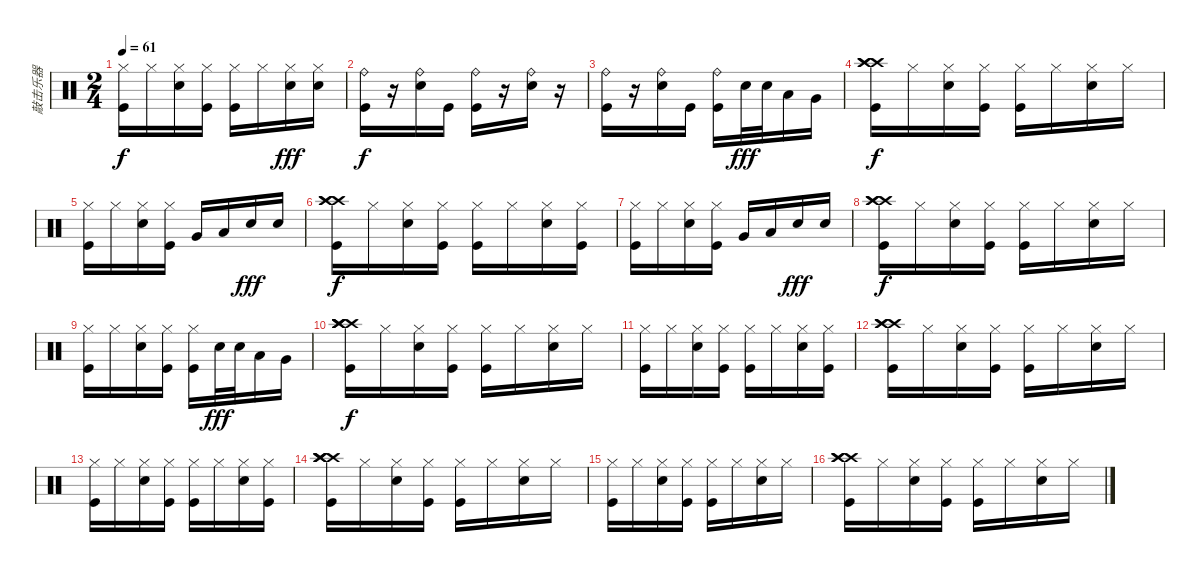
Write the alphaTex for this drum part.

\track ("敲击乐器" "敲击乐器") {instrument percussion}
\staff {score}
\articulation defaults
\ts (2 4)
\tempo 61
\clef neutral
\ks c
("Hi-Hat (closed)" "Kick (hit)").16{dy f} "Hi-Hat (closed)".16 ("Hi-Hat (closed)" "Snare (hit) 2").16 ("Hi-Hat (closed)" "Kick (hit)").16 ("Hi-Hat (closed)" "Kick (hit)").16 "Hi-Hat (closed)".16 ("Hi-Hat (closed)" "Snare (hit) 2").16{dy fff} ("Hi-Hat (closed)" "Snare (hit) 2").16 |
("Ride (bell)" "Kick (hit)").16{dy f} r.16 ("Ride (bell)" "Snare (hit) 2").16 "Kick (hit)".16 ("Ride (bell)" "Kick (hit)").16 r.16 ("Ride (bell)" "Snare (hit) 2").16 r.16 |
("Ride (bell)" "Kick (hit)").16 r.16 ("Ride (bell)" "Snare (hit) 2").16 "Kick (hit)".16 ("Ride (bell)" "Kick (hit)").16 "Snare (hit) 2".32{dy fff} "Snare (hit) 2".32 "Low Tom (hit)".16 "Very Low Tom (hit)".16 |
("Crash high (hit)" "Crash high (hit)" "Crash high (hit)" "Kick (hit)").16{dy f} "Hi-Hat (closed)".16 ("Hi-Hat (closed)" "Snare (hit) 2").16 ("Hi-Hat (closed)" "Kick (hit)").16 ("Hi-Hat (closed)" "Kick (hit)").16 "Hi-Hat (closed)".16 ("Hi-Hat (closed)" "Snare (hit) 2").16 "Hi-Hat (closed)".16 |
("Hi-Hat (closed)" "Kick (hit)").16 "Hi-Hat (closed)".16 ("Hi-Hat (closed)" "Snare (hit) 2").16 ("Hi-Hat (closed)" "Kick (hit)").16 "Very Low Tom (hit)".16 "Low Tom (hit)".16 "Snare (hit) 2".16{dy fff} "Snare (hit) 2".16 |
("Crash high (hit)" "Crash high (hit)" "Crash high (hit)" "Kick (hit)").16{dy f} "Hi-Hat (closed)".16 ("Hi-Hat (closed)" "Snare (hit) 2").16 ("Hi-Hat (closed)" "Kick (hit)").16 ("Hi-Hat (closed)" "Kick (hit)").16 "Hi-Hat (closed)".16 ("Hi-Hat (closed)" "Snare (hit) 2").16 ("Hi-Hat (closed)" "Kick (hit)").16 |
("Hi-Hat (closed)" "Kick (hit)").16 "Hi-Hat (closed)".16 ("Hi-Hat (closed)" "Snare (hit) 2").16 ("Hi-Hat (closed)" "Kick (hit)").16 "Very Low Tom (hit)".16 "Low Tom (hit)".16 "Snare (hit) 2".16{dy fff} "Snare (hit) 2".16 |
("Crash high (hit)" "Crash high (hit)" "Crash high (hit)" "Kick (hit)").16{dy f} "Hi-Hat (closed)".16 ("Hi-Hat (closed)" "Snare (hit) 2").16 ("Hi-Hat (closed)" "Kick (hit)").16 ("Hi-Hat (closed)" "Kick (hit)").16 "Hi-Hat (closed)".16 ("Hi-Hat (closed)" "Snare (hit) 2").16 "Hi-Hat (closed)".16 |
("Hi-Hat (closed)" "Kick (hit)").16 "Hi-Hat (closed)".16 ("Hi-Hat (closed)" "Snare (hit) 2").16 ("Hi-Hat (closed)" "Kick (hit)").16 ("Hi-Hat (closed)" "Kick (hit)").16 "Snare (hit) 2".32{dy fff} "Snare (hit) 2".32 "Low Tom (hit)".16 "Very Low Tom (hit)".16 |
("Crash high (hit)" "Crash high (hit)" "Crash high (hit)" "Crash high (hit)" "Kick (hit)").16{dy f} "Hi-Hat (closed)".16 ("Hi-Hat (closed)" "Snare (hit) 2").16 ("Hi-Hat (closed)" "Kick (hit)").16 ("Hi-Hat (closed)" "Kick (hit)").16 "Hi-Hat (closed)".16 ("Hi-Hat (closed)" "Snare (hit) 2").16 "Hi-Hat (closed)".16 |
("Hi-Hat (closed)" "Kick (hit)").16 "Hi-Hat (closed)".16 ("Hi-Hat (closed)" "Snare (hit) 2").16 ("Hi-Hat (closed)" "Kick (hit)").16 ("Hi-Hat (closed)" "Kick (hit)").16 "Hi-Hat (closed)".16 ("Hi-Hat (closed)" "Snare (hit) 2").16 ("Hi-Hat (closed)" "Kick (hit)").16 |
("Crash high (hit)" "Crash high (hit)" "Crash high (hit)" "Kick (hit)").16 "Hi-Hat (closed)".16 ("Hi-Hat (closed)" "Snare (hit) 2").16 ("Hi-Hat (closed)" "Kick (hit)").16 ("Hi-Hat (closed)" "Kick (hit)").16 "Hi-Hat (closed)".16 ("Hi-Hat (closed)" "Snare (hit) 2").16 "Hi-Hat (closed)".16 |
("Hi-Hat (closed)" "Kick (hit)").16 "Hi-Hat (closed)".16 ("Hi-Hat (closed)" "Snare (hit) 2").16 ("Hi-Hat (closed)" "Kick (hit)").16 ("Hi-Hat (closed)" "Kick (hit)").16 "Hi-Hat (closed)".16 ("Hi-Hat (closed)" "Snare (hit) 2").16 ("Hi-Hat (closed)" "Kick (hit)").16 |
("Crash high (hit)" "Crash high (hit)" "Crash high (hit)" "Crash high (hit)" "Kick (hit)").16 "Hi-Hat (closed)".16 ("Hi-Hat (closed)" "Snare (hit) 2").16 ("Hi-Hat (closed)" "Kick (hit)").16 ("Hi-Hat (closed)" "Kick (hit)").16 "Hi-Hat (closed)".16 ("Hi-Hat (closed)" "Snare (hit) 2").16 "Hi-Hat (closed)".16 |
("Hi-Hat (closed)" "Kick (hit)").16 "Hi-Hat (closed)".16 ("Hi-Hat (closed)" "Snare (hit) 2").16 ("Hi-Hat (closed)" "Kick (hit)").16 ("Hi-Hat (closed)" "Kick (hit)").16 "Hi-Hat (closed)".16 ("Hi-Hat (closed)" "Snare (hit) 2").16 "Hi-Hat (closed)".16 |
("Crash high (hit)" "Crash high (hit)" "Crash high (hit)" "Kick (hit)").16 "Hi-Hat (closed)".16 ("Hi-Hat (closed)" "Snare (hit) 2").16 ("Hi-Hat (closed)" "Kick (hit)").16 ("Hi-Hat (closed)" "Kick (hit)").16 "Hi-Hat (closed)".16 ("Hi-Hat (closed)" "Snare (hit) 2").16 "Hi-Hat (closed)".16
